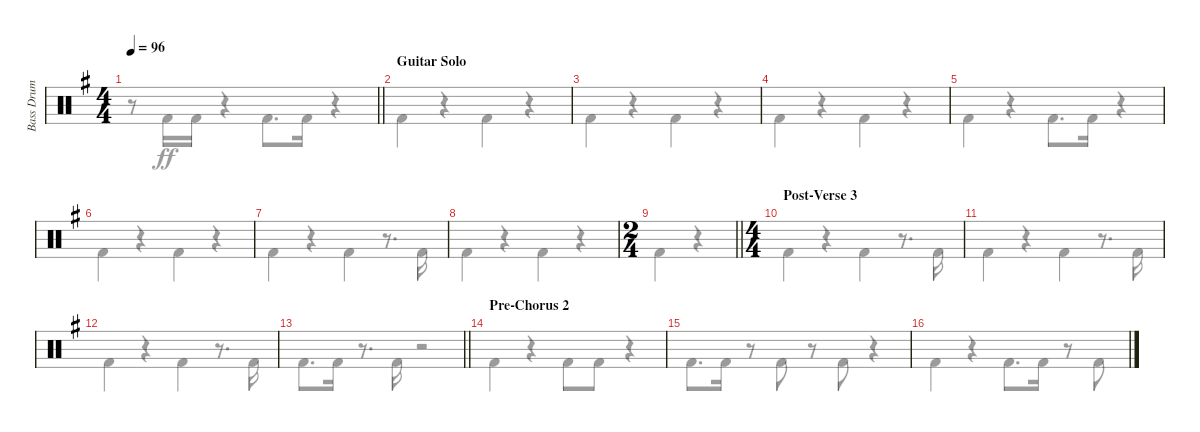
\track ("Bass Drum" "Bass Drum") {instrument percussion}
\staff {score}
\articulation defaults
\voice
\ts (4 4)
\tempo 96
\clef neutral
\barLineRight lightlight
\ks g
|
\section ("" "Guitar Solo")
|
|
|
|
|
|
|
\ts (2 4)
\barLineRight lightlight
|
\ts (4 4)
\section ("" "Post-Verse 3")
|
|
|
\barLineRight lightlight
|
\section ("" "Pre-Chorus 2")
|
|
\voice
\clef neutral
\barLineRight lightlight
\ks g
r.8{dy ff} "Kick (hit) 2".16 "Kick (hit) 2".16 r.4 "Kick (hit) 2".8{d} "Kick (hit) 2".16 r.4 |
"Kick (hit) 2".4 r.4 "Kick (hit) 2".4 r.4 |
"Kick (hit) 2".4 r.4 "Kick (hit) 2".4 r.4 |
"Kick (hit) 2".4 r.4 "Kick (hit) 2".4 r.4 |
"Kick (hit) 2".4 r.4 "Kick (hit) 2".8{d} "Kick (hit) 2".16 r.4 |
"Kick (hit) 2".4 r.4 "Kick (hit) 2".4 r.4 |
"Kick (hit) 2".4 r.4 "Kick (hit) 2".4 r.8{d} "Kick (hit) 2".16 |
"Kick (hit) 2".4 r.4 "Kick (hit) 2".4 r.4 |
\barLineRight lightlight "Kick (hit) 2".4
r.4 |
"Kick (hit) 2".4 r.4 "Kick (hit) 2".4 r.8{d} "Kick (hit) 2".16 |
"Kick (hit) 2".4 r.4 "Kick (hit) 2".4 r.8{d} "Kick (hit) 2".16 |
"Kick (hit) 2".4 r.4 "Kick (hit) 2".4 r.8{d} "Kick (hit) 2".16 |
\barLineRight lightlight "Kick (hit) 2".8{d} "Kick (hit) 2".16
r.8{d} "Kick (hit) 2".16 r.2 |
"Kick (hit) 2".4 r.4 "Kick (hit) 2".8 "Kick (hit) 2".8 r.4 |
"Kick (hit) 2".8{d} "Kick (hit) 2".16 r.8 "Kick (hit) 2".8 r.8 "Kick (hit) 2".8 r.4 |
"Kick (hit) 2".4 r.4 "Kick (hit) 2".8{d} "Kick (hit) 2".16 r.8 "Kick (hit) 2".8
